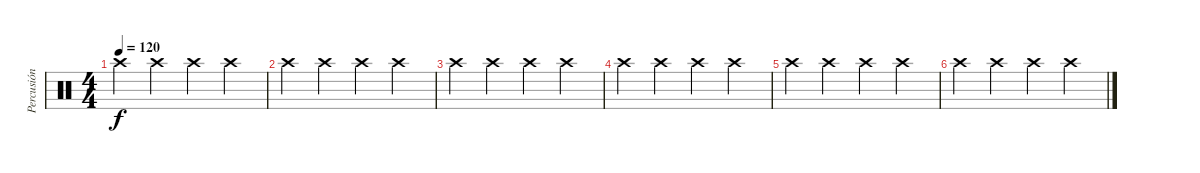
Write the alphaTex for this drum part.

\track ("Percusión" "Percusión") {instrument percussion}
\staff {score}
\articulation defaults
\ts (4 4)
\tempo 120
\clef neutral
\ks c "Crash high (hit)".4{dy f} "Crash high (hit)".4 "Crash high (hit)".4 "Crash high (hit)".4
|
"Crash high (hit)".4 "Crash high (hit)".4 "Crash high (hit)".4 "Crash high (hit)".4 |
"Crash high (hit)".4 "Crash high (hit)".4 "Crash high (hit)".4 "Crash high (hit)".4 |
"Crash high (hit)".4 "Crash high (hit)".4 "Crash high (hit)".4 "Crash high (hit)".4 |
"Crash high (hit)".4 "Crash high (hit)".4 "Crash high (hit)".4 "Crash high (hit)".4 |
"Crash high (hit)".4 "Crash high (hit)".4 "Crash high (hit)".4 "Crash high (hit)".4
